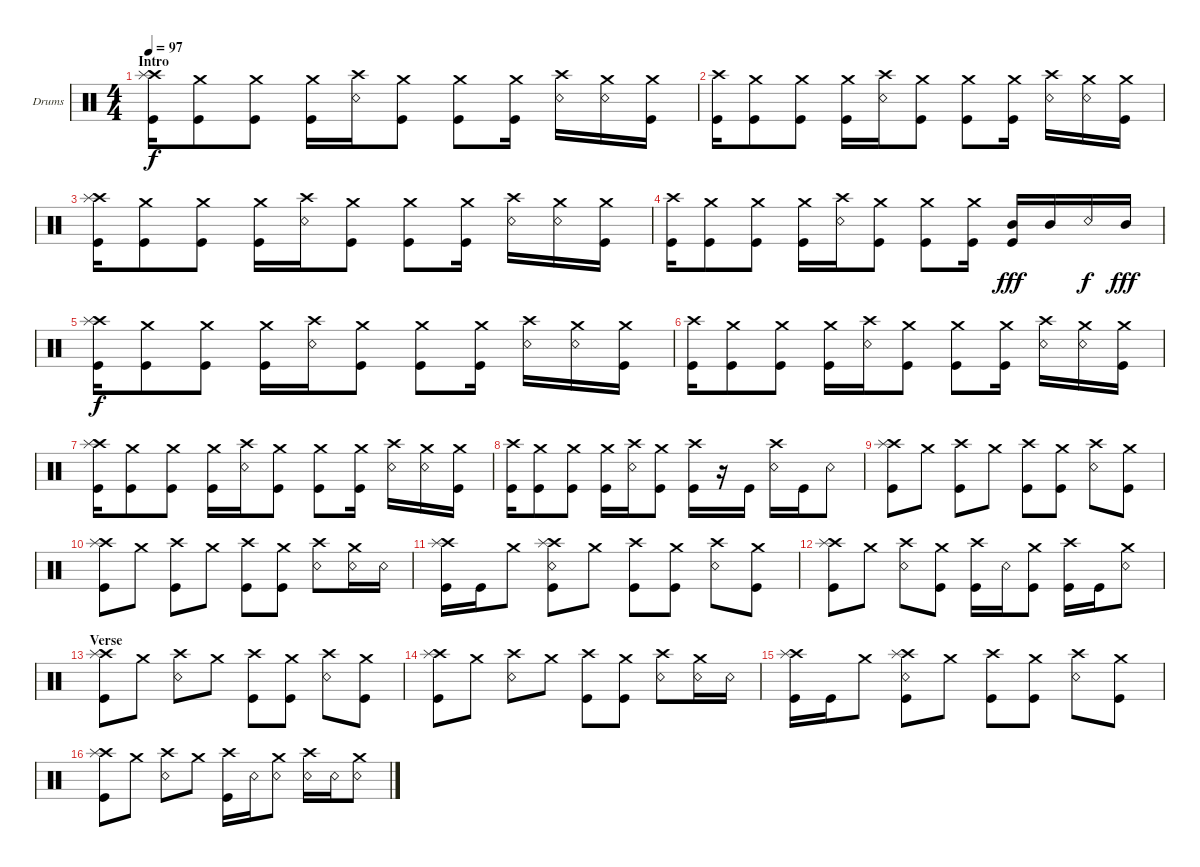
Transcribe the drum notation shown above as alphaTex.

\bracketExtendMode groupsimilarinstruments
\firstSystemTrackNameOrientation horizontal
\otherSystemsTrackNameOrientation horizontal
\track ("Drumkit" "Drums") {instrument percussion}
\staff {score}
\articulation defaults
\ts (4 4)
\section ("" "Intro")
\tempo 97
\clef neutral
\scale
0.472222
\ks c
("Kick (hit)" "Crash high (hit)" "Splash (hit)").16{dy f} ("Kick (hit)" "Crash medium (hit)").8 ("Kick (hit)" "Crash medium (hit)").8 ("Kick (hit)" "Crash medium (hit)").16 ("Snare (rim shot)" "Crash high (hit)").16 ("Kick (hit)" "Crash medium (hit)").8 ("Kick (hit)" "Crash medium (hit)").8 ("Kick (hit)" "Crash medium (hit)").16 ("Snare (rim shot)" "Crash high (hit)").16 ("Snare (rim shot)" "Crash medium (hit)").16 ("Kick (hit)" "Crash medium (hit)").16 |
\scale
0.263889 ("Kick (hit)" "Crash high (hit)").16 ("Kick (hit)" "Crash medium (hit)").8 ("Kick (hit)" "Crash medium (hit)").8 ("Kick (hit)" "Crash medium (hit)").16 ("Snare (rim shot)" "Crash high (hit)").16 ("Kick (hit)" "Crash medium (hit)").8 ("Kick (hit)" "Crash medium (hit)").8 ("Kick (hit)" "Crash medium (hit)").16 ("Snare (rim shot)" "Crash high (hit)").16 ("Snare (rim shot)" "Crash medium (hit)").16 ("Kick (hit)" "Crash medium (hit)").16 |
\scale
0.263889 ("Kick (hit)" "Crash high (hit)" "Splash (hit)").16 ("Kick (hit)" "Crash medium (hit)").8 ("Kick (hit)" "Crash medium (hit)").8 ("Kick (hit)" "Crash medium (hit)").16 ("Snare (rim shot)" "Crash high (hit)").16 ("Kick (hit)" "Crash medium (hit)").8 ("Kick (hit)" "Crash medium (hit)").8 ("Kick (hit)" "Crash medium (hit)").16 ("Snare (rim shot)" "Crash high (hit)").16 ("Snare (rim shot)" "Crash medium (hit)").16 ("Kick (hit)" "Crash medium (hit)").16 |
\scale
0.333333 ("Kick (hit)" "Crash high (hit)").16 ("Kick (hit)" "Crash medium (hit)").8 ("Kick (hit)" "Crash medium (hit)").8 ("Kick (hit)" "Crash medium (hit)").16 ("Snare (rim shot)" "Crash high (hit)").16 ("Kick (hit)" "Crash medium (hit)").8 ("Kick (hit)" "Crash medium (hit)").8 ("Kick (hit)" "Crash medium (hit)").16 ("Kick (hit)" "Mid Tom (hit)").16{dy fff} "Mid Tom (hit)".16 "Snare (rim shot)".16{dy f} "Mid Tom (hit)".16{dy fff} |
("Kick (hit)" "Crash high (hit)" "Splash (hit)").16{dy f} ("Kick (hit)" "Crash medium (hit)").8 ("Kick (hit)" "Crash medium (hit)").8 ("Kick (hit)" "Crash medium (hit)").16 ("Snare (rim shot)" "Crash high (hit)").16 ("Kick (hit)" "Crash medium (hit)").8 ("Kick (hit)" "Crash medium (hit)").8 ("Kick (hit)" "Crash medium (hit)").16 ("Snare (rim shot)" "Crash high (hit)").16 ("Snare (rim shot)" "Crash medium (hit)").16 ("Kick (hit)" "Crash medium (hit)").16 |
("Kick (hit)" "Crash high (hit)").16 ("Kick (hit)" "Crash medium (hit)").8 ("Kick (hit)" "Crash medium (hit)").8 ("Kick (hit)" "Crash medium (hit)").16 ("Snare (rim shot)" "Crash high (hit)").16 ("Kick (hit)" "Crash medium (hit)").8 ("Kick (hit)" "Crash medium (hit)").8 ("Kick (hit)" "Crash medium (hit)").16 ("Snare (rim shot)" "Crash high (hit)").16 ("Snare (rim shot)" "Crash medium (hit)").16 ("Kick (hit)" "Crash medium (hit)").16 |
("Kick (hit)" "Crash high (hit)" "Splash (hit)").16 ("Kick (hit)" "Crash medium (hit)").8 ("Kick (hit)" "Crash medium (hit)").8 ("Kick (hit)" "Crash medium (hit)").16 ("Snare (rim shot)" "Crash high (hit)").16 ("Kick (hit)" "Crash medium (hit)").8 ("Kick (hit)" "Crash medium (hit)").8 ("Kick (hit)" "Crash medium (hit)").16 ("Snare (rim shot)" "Crash high (hit)").16 ("Snare (rim shot)" "Crash medium (hit)").16 ("Kick (hit)" "Crash medium (hit)").16 |
("Kick (hit)" "Crash high (hit)").16 ("Kick (hit)" "Crash medium (hit)").8 ("Kick (hit)" "Crash medium (hit)").8 ("Kick (hit)" "Crash medium (hit)").16 ("Snare (rim shot)" "Crash high (hit)").16 ("Kick (hit)" "Crash medium (hit)").8 ("Kick (hit)" "Crash high (hit)").16 r.16 "Kick (hit)".16 ("Crash high (hit)" "Snare (rim shot)").16 "Kick (hit)".16 "Snare (rim shot)".8 |
\scale
0.333333 ("Kick (hit)" "Crash high (hit)" "Splash (hit)").8 "Crash medium (hit)".8 ("Kick (hit)" "Crash high (hit)").8 "Crash medium (hit)".8 ("Kick (hit)" "Crash high (hit)").8 ("Kick (hit)" "Crash medium (hit)").8 ("Snare (rim shot)" "Crash high (hit)").8 ("Kick (hit)" "Crash medium (hit)").8 |
\scale
0.333333 ("Kick (hit)" "Crash high (hit)" "Splash (hit)").8 "Crash medium (hit)".8 ("Kick (hit)" "Crash high (hit)").8 "Crash medium (hit)".8 ("Kick (hit)" "Crash high (hit)").8 ("Kick (hit)" "Crash medium (hit)").8 ("Snare (rim shot)" "Crash high (hit)").8 ("Snare (rim shot)" "Crash medium (hit)").16 "Snare (rim shot)".16 |
\scale
0.333333 ("Kick (hit)" "Crash high (hit)" "Splash (hit)").16 "Kick (hit)".16 "Crash medium (hit)".8 ("Kick (hit)" "Crash high (hit)" "Splash (hit)" "Snare (rim shot)").8 "Crash medium (hit)".8 ("Kick (hit)" "Crash high (hit)").8 ("Kick (hit)" "Crash medium (hit)").8 ("Snare (rim shot)" "Crash high (hit)").8 ("Kick (hit)" "Crash medium (hit)").8 |
\scale
0.333333 ("Kick (hit)" "Crash high (hit)" "Splash (hit)").8 "Crash medium (hit)".8 ("Crash high (hit)" "Snare (rim shot)").8 ("Kick (hit)" "Crash medium (hit)").8 ("Kick (hit)" "Crash high (hit)").16 "Snare (rim shot)".16 ("Kick (hit)" "Crash medium (hit)").8 ("Kick (hit)" "Crash high (hit)").16 "Kick (hit)".16 ("Snare (rim shot)" "Crash medium (hit)").8 |
\section ("" "Verse")
\scale
0.333333 ("Kick (hit)" "Crash high (hit)" "Splash (hit)").8 "Crash medium (hit)".8 ("Crash high (hit)" "Snare (rim shot)").8 "Crash medium (hit)".8 ("Kick (hit)" "Crash high (hit)").8 ("Kick (hit)" "Crash medium (hit)").8 ("Snare (rim shot)" "Crash high (hit)").8 ("Kick (hit)" "Crash medium (hit)").8 |
\scale
0.333333 ("Kick (hit)" "Crash high (hit)" "Splash (hit)").8 "Crash medium (hit)".8 ("Crash high (hit)" "Snare (rim shot)").8 "Crash medium (hit)".8 ("Kick (hit)" "Crash high (hit)").8 ("Kick (hit)" "Crash medium (hit)").8 ("Snare (rim shot)" "Crash high (hit)").8 ("Snare (rim shot)" "Crash medium (hit)").16 "Snare (rim shot)".16 |
\scale
0.333333 ("Kick (hit)" "Crash high (hit)" "Splash (hit)").16 "Kick (hit)".16 "Crash medium (hit)".8 ("Kick (hit)" "Crash high (hit)" "Splash (hit)" "Snare (rim shot)").8 "Crash medium (hit)".8 ("Kick (hit)" "Crash high (hit)").8 ("Kick (hit)" "Crash medium (hit)").8 ("Snare (rim shot)" "Crash high (hit)").8 ("Kick (hit)" "Crash medium (hit)").8 |
\scale
0.333333 ("Kick (hit)" "Crash high (hit)" "Splash (hit)").8 "Crash medium (hit)".8 ("Crash high (hit)" "Snare (rim shot)").8 "Crash medium (hit)".8 ("Kick (hit)" "Crash high (hit)").16 "Snare (rim shot)".16 ("Crash medium (hit)" "Snare (rim shot)").8 ("Crash high (hit)" "Snare (rim shot)").16 "Snare (rim shot)".16 ("Snare (rim shot)" "Crash medium (hit)").8
